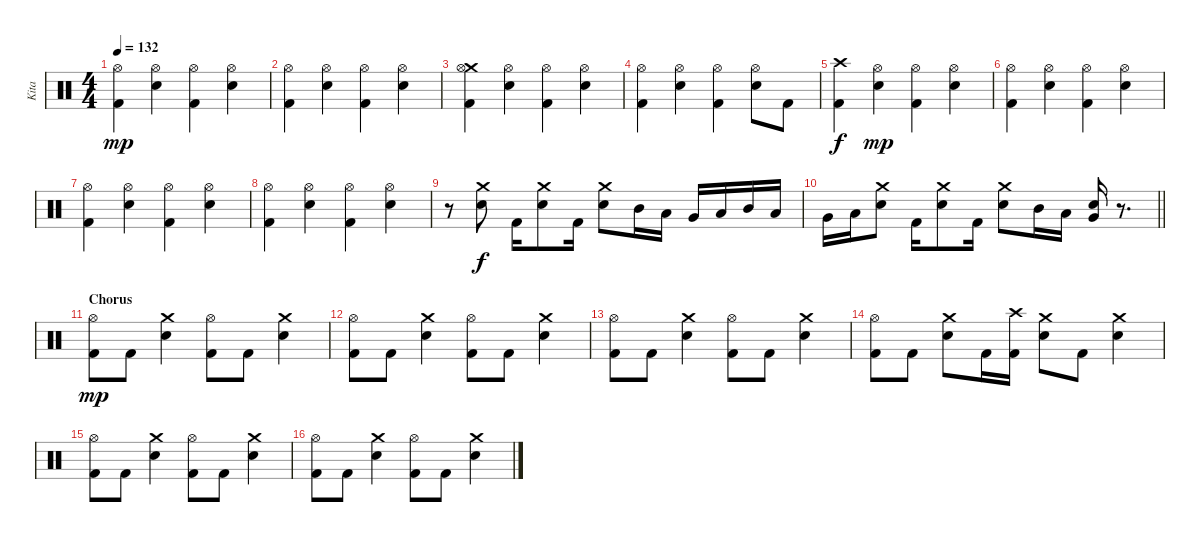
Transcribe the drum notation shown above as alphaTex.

\track ("Kita" "Kita") {instrument percussion}
\staff {score}
\articulation defaults
\ts (4 4)
\tempo 132
\clef neutral
\ks c
("Hi-Hat (open)" "Kick (hit) 2").4{dy mp} ("Hi-Hat (open)" "Snare (hit) 2").4 ("Hi-Hat (open)" "Kick (hit) 2").4 ("Hi-Hat (open)" "Snare (hit) 2").4 |
("Hi-Hat (open)" "Kick (hit) 2").4 ("Hi-Hat (open)" "Snare (hit) 2").4 ("Hi-Hat (open)" "Kick (hit) 2").4 ("Hi-Hat (open)" "Snare (hit) 2").4 |
("Crash medium (hit)" "Hi-Hat (open)" "Kick (hit) 2").4 ("Hi-Hat (open)" "Snare (hit) 2").4 ("Hi-Hat (open)" "Kick (hit) 2").4 ("Hi-Hat (open)" "Snare (hit) 2").4 |
("Hi-Hat (open)" "Kick (hit) 2").4 ("Hi-Hat (open)" "Snare (hit) 2").4 ("Hi-Hat (open)" "Kick (hit) 2").4 ("Hi-Hat (open)" "Snare (hit) 2").8 "Kick (hit) 2".8 |
("Crash high (hit)" "Kick (hit) 2").4{dy f} ("Hi-Hat (open)" "Snare (hit) 2").4{dy mp} ("Hi-Hat (open)" "Kick (hit) 2").4 ("Hi-Hat (open)" "Snare (hit) 2").4 |
("Hi-Hat (open)" "Kick (hit) 2").4 ("Hi-Hat (open)" "Snare (hit) 2").4 ("Hi-Hat (open)" "Kick (hit) 2").4 ("Hi-Hat (open)" "Snare (hit) 2").4 |
("Hi-Hat (open)" "Kick (hit) 2").4 ("Hi-Hat (open)" "Snare (hit) 2").4 ("Hi-Hat (open)" "Kick (hit) 2").4 ("Hi-Hat (open)" "Snare (hit) 2").4 |
("Hi-Hat (open)" "Kick (hit) 2").4 ("Hi-Hat (open)" "Snare (hit) 2").4 ("Hi-Hat (open)" "Kick (hit) 2").4 ("Hi-Hat (open)" "Snare (hit) 2").4 |
r.8 ("Crash medium (hit)" "Snare (hit) 2").8{dy f} "Kick (hit) 2".16 ("Crash medium (hit)" "Snare (hit) 2").8 "Kick (hit) 2".16 ("Crash medium (hit)" "Snare (hit) 2").8 "Mid Tom (hit)".16 "Low Tom (hit)".16 "Very Low Tom (hit)".16 "Low Floor Tom (hit)".16 "Mid Tom (hit)".16 "Low Tom (hit)".16 |
\barLineRight lightlight "Very Low Tom (hit)".16 "Low Floor Tom (hit)".16
("Crash medium (hit)" "Snare (hit) 2").8 "Kick (hit) 2".16 ("Crash medium (hit)" "Snare (hit) 2").8 "Kick (hit) 2".16 ("Crash medium (hit)" "Snare (hit) 2").8 "Mid Tom (hit)".16 "Low Tom (hit)".16 ("Very Low Tom (hit)" "Snare (hit) 2").16 r.8{d} |
\section ("" "Chorus")
("Hi-Hat (open)" "Kick (hit) 2").8{dy mp} "Kick (hit) 2".8 ("Crash medium (hit)" "Snare (hit) 2").4 ("Hi-Hat (open)" "Kick (hit) 2").8 "Kick (hit) 2".8 ("Crash medium (hit)" "Snare (hit) 2").4 |
("Hi-Hat (open)" "Kick (hit) 2").8 "Kick (hit) 2".8 ("Crash medium (hit)" "Snare (hit) 2").4 ("Hi-Hat (open)" "Kick (hit) 2").8 "Kick (hit) 2".8 ("Crash medium (hit)" "Snare (hit) 2").4 |
("Hi-Hat (open)" "Kick (hit) 2").8 "Kick (hit) 2".8 ("Crash medium (hit)" "Snare (hit) 2").4 ("Hi-Hat (open)" "Kick (hit) 2").8 "Kick (hit) 2".8 ("Crash medium (hit)" "Snare (hit) 2").4 |
("Hi-Hat (open)" "Kick (hit) 2").8 "Kick (hit) 2".8 ("Crash medium (hit)" "Snare (hit) 2").8 "Kick (hit) 2".16 ("Crash high (hit)" "Kick (hit) 2").16 ("Crash medium (hit)" "Snare (hit) 2").8 "Kick (hit) 2".8 ("Crash medium (hit)" "Snare (hit) 2").4 |
("Hi-Hat (open)" "Kick (hit) 2").8 "Kick (hit) 2".8 ("Crash medium (hit)" "Snare (hit) 2").4 ("Hi-Hat (open)" "Kick (hit) 2").8 "Kick (hit) 2".8 ("Crash medium (hit)" "Snare (hit) 2").4 |
("Hi-Hat (open)" "Kick (hit) 2").8 "Kick (hit) 2".8 ("Crash medium (hit)" "Snare (hit) 2").4 ("Hi-Hat (open)" "Kick (hit) 2").8 "Kick (hit) 2".8 ("Crash medium (hit)" "Snare (hit) 2").4
